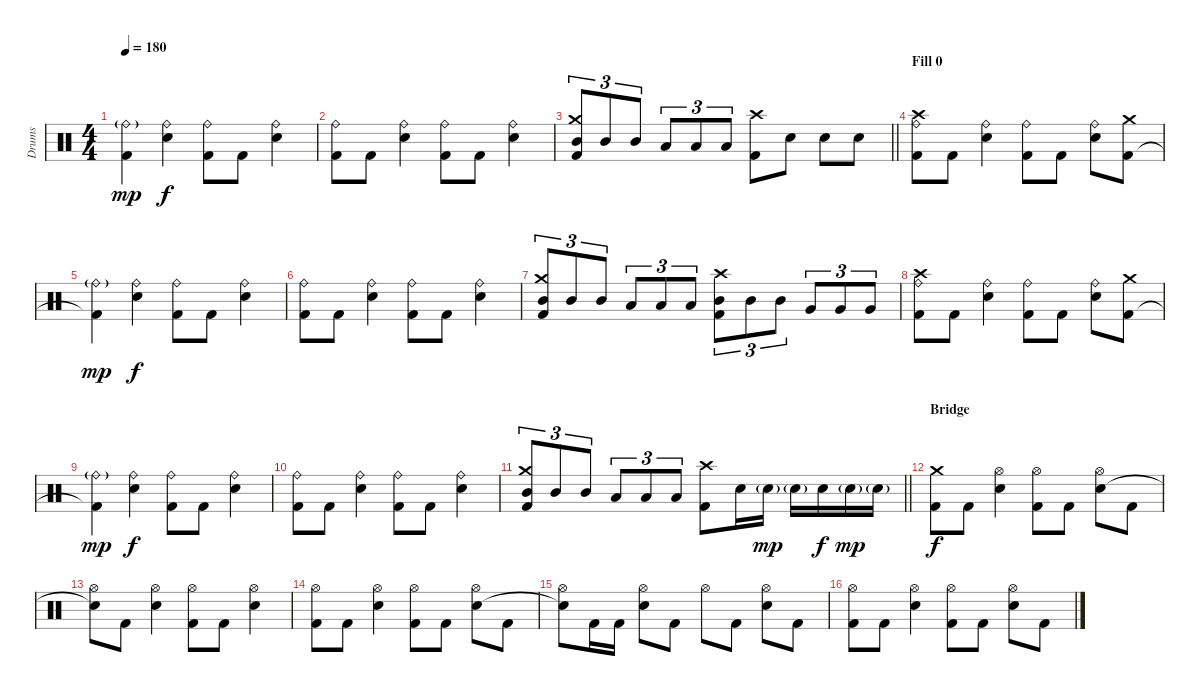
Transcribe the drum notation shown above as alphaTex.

\track ("Drums" "Drums") {instrument percussion}
\staff {score}
\articulation defaults
\ts (4 4)
\tempo 180
\clef neutral
\ks c
("Ride (bell)"{g} "Kick (hit) 2"{t}).4{dy mp} ("Ride (bell)" "Snare (hit) 2").4{dy f} ("Ride (bell)" "Kick (hit) 2").8 "Kick (hit) 2".8 ("Ride (bell)" "Snare (hit) 2").4 |
("Ride (bell)" "Kick (hit) 2").8 "Kick (hit) 2".8 ("Ride (bell)" "Snare (hit) 2").4 ("Ride (bell)" "Kick (hit) 2").8 "Kick (hit) 2".8 ("Ride (bell)" "Snare (hit) 2").4 |
\barLineRight lightlight
("Crash medium (hit)" "Mid Tom (hit)" "Kick (hit) 2").8{tu (3 2)} "Mid Tom (hit)".8{tu (3 2)} "Mid Tom (hit)".8{tu (3 2)} "Low Tom (hit)".8{tu (3 2)} "Low Tom (hit)".8{tu (3 2)} "Low Tom (hit)".8{tu (3 2)} ("Crash high (hit)" "Kick (hit) 2").8 "Snare (hit) 2".8 "Snare (hit) 2".8 "Snare (hit) 2".8 |
\section ("" "Fill 0")
("Ride (bell)" "Crash high (hit)" "Kick (hit) 2").8 "Kick (hit) 2".8 ("Ride (bell)" "Snare (hit) 2").4 ("Ride (bell)" "Kick (hit) 2").8 "Kick (hit) 2".8 ("Ride (bell)" "Snare (hit) 2").8 ("Crash medium (hit)" "Kick (hit) 2").8 |
("Ride (bell)"{g} "Kick (hit) 2"{t}).4{dy mp} ("Ride (bell)" "Snare (hit) 2").4{dy f} ("Ride (bell)" "Kick (hit) 2").8 "Kick (hit) 2".8 ("Ride (bell)" "Snare (hit) 2").4 |
("Ride (bell)" "Kick (hit) 2").8 "Kick (hit) 2".8 ("Ride (bell)" "Snare (hit) 2").4 ("Ride (bell)" "Kick (hit) 2").8 "Kick (hit) 2".8 ("Ride (bell)" "Snare (hit) 2").4 |
("Crash medium (hit)" "Mid Tom (hit)" "Kick (hit) 2").8{tu (3 2)} "Mid Tom (hit)".8{tu (3 2)} "Mid Tom (hit)".8{tu (3 2)} "Low Tom (hit)".8{tu (3 2)} "Low Tom (hit)".8{tu (3 2)} "Low Tom (hit)".8{tu (3 2)} ("Crash high (hit)" "Mid Tom (hit)" "Kick (hit) 2").8{tu (3 2)} "Mid Tom (hit)".8{tu (3 2)} "Mid Tom (hit)".8{tu (3 2)} "Very Low Tom (hit)".8{tu (3 2)} "Very Low Tom (hit)".8{tu (3 2)} "Very Low Tom (hit)".8{tu (3 2)} |
("Ride (bell)" "Crash high (hit)" "Kick (hit) 2").8 "Kick (hit) 2".8 ("Ride (bell)" "Snare (hit) 2").4 ("Ride (bell)" "Kick (hit) 2").8 "Kick (hit) 2".8 ("Ride (bell)" "Snare (hit) 2").8 ("Crash medium (hit)" "Kick (hit) 2").8 |
("Ride (bell)"{g} "Kick (hit) 2"{t}).4{dy mp} ("Ride (bell)" "Snare (hit) 2").4{dy f} ("Ride (bell)" "Kick (hit) 2").8 "Kick (hit) 2".8 ("Ride (bell)" "Snare (hit) 2").4 |
("Ride (bell)" "Kick (hit) 2").8 "Kick (hit) 2".8 ("Ride (bell)" "Snare (hit) 2").4 ("Ride (bell)" "Kick (hit) 2").8 "Kick (hit) 2".8 ("Ride (bell)" "Snare (hit) 2").4 |
\barLineRight lightlight
("Crash medium (hit)" "Mid Tom (hit)" "Kick (hit) 2").8{tu (3 2)} "Mid Tom (hit)".8{tu (3 2)} "Mid Tom (hit)".8{tu (3 2)} "Low Tom (hit)".8{tu (3 2)} "Low Tom (hit)".8{tu (3 2)} "Low Tom (hit)".8{tu (3 2)} ("Crash high (hit)" "Kick (hit) 2").8 "Snare (hit) 2".16 "Snare (hit) 2"{g}.16{dy mp} "Snare (hit) 2"{g}.16 "Snare (hit) 2".16{dy f} "Snare (hit) 2"{g}.16{dy mp} "Snare (hit) 2"{g}.16 |
\section ("" "Bridge")
("Crash medium (hit)" "Kick (hit) 2").8{dy f} "Kick (hit) 2".8 ("Hi-Hat (open)" "Snare (hit) 2").4 ("Hi-Hat (open)" "Kick (hit) 2").8 "Kick (hit) 2".8 ("Hi-Hat (open)" "Snare (hit) 2").8 "Kick (hit) 2".8 |
("Hi-Hat (open)" "Snare (hit)"{t}).8 "Kick (hit) 2".8 ("Hi-Hat (open)" "Snare (hit) 2").4 ("Hi-Hat (open)" "Kick (hit) 2").8 "Kick (hit) 2".8 ("Hi-Hat (open)" "Snare (hit) 2").4 |
("Hi-Hat (open)" "Kick (hit) 2").8 "Kick (hit) 2".8 ("Hi-Hat (open)" "Snare (hit) 2").4 ("Hi-Hat (open)" "Kick (hit) 2").8 "Kick (hit) 2".8 ("Hi-Hat (open)" "Snare (hit) 2").8 "Kick (hit) 2".8 |
("Hi-Hat (open)" "Snare (hit)"{t}).8 "Kick (hit) 2".16 "Kick (hit) 2".16 ("Hi-Hat (open)" "Snare (hit) 2").8 "Kick (hit) 2".8 "Hi-Hat (open)".8 "Kick (hit) 2".8 ("Hi-Hat (open)" "Snare (hit) 2").8 "Kick (hit) 2".8 |
("Hi-Hat (open)" "Kick (hit) 2").8 "Kick (hit) 2".8 ("Hi-Hat (open)" "Snare (hit) 2").4 ("Hi-Hat (open)" "Kick (hit) 2").8 "Kick (hit) 2".8 ("Hi-Hat (open)" "Snare (hit) 2").8 "Kick (hit) 2".8
